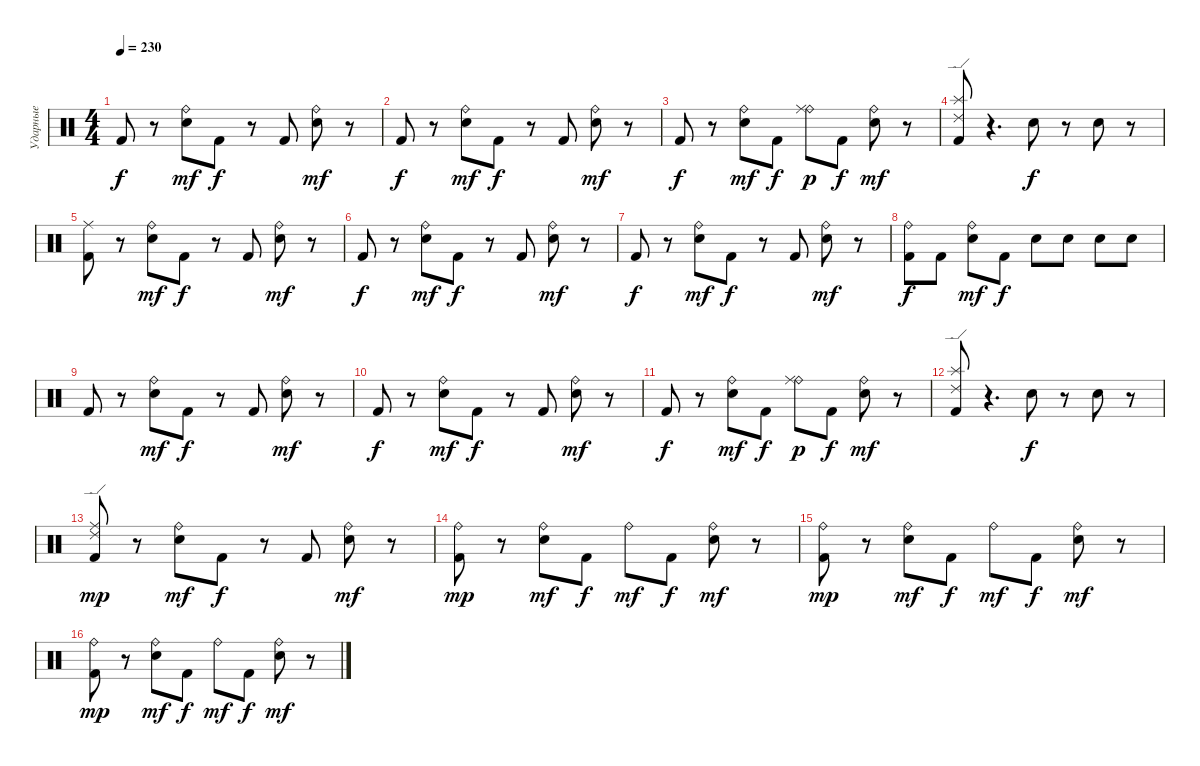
\track ("Ударные" "Ударные") {instrument percussion}
\staff {score}
\articulation defaults
\ts (4 4)
\tempo 230
\clef neutral
\ks c "Kick (hit) 2".8{dy f}
r.8 ("Ride (bell)" "Snare (hit) 2").8{dy mf} "Kick (hit) 2".8{dy f} r.8 "Kick (hit) 2".8 ("Ride (bell)" "Snare (hit) 2").8{dy mf} r.8 |
"Kick (hit) 2".8{dy f} r.8 ("Ride (bell)" "Snare (hit) 2").8{dy mf} "Kick (hit) 2".8{dy f} r.8 "Kick (hit) 2".8 ("Ride (bell)" "Snare (hit) 2").8{dy mf} r.8 |
"Kick (hit) 2".8{dy f} r.8 ("Ride (bell)" "Snare (hit) 2").8{dy mf} "Kick (hit) 2".8{dy f} ("Ride (bell)" "Ride (middle)").8{dy p} "Kick (hit) 2".8{dy f} ("Ride (bell)" "Snare (hit) 2").8{dy mf} r.8 |
("Splash (hit)" "Ride (edge) 2" "Kick (hit) 2").8 r.4{d} "Snare (hit) 2".8{dy f} r.8 "Snare (hit) 2".8 r.8 |
("Ride (middle)" "Kick (hit) 2").8 r.8 ("Ride (bell)" "Snare (hit) 2").8{dy mf} "Kick (hit) 2".8{dy f} r.8 "Kick (hit) 2".8 ("Ride (bell)" "Snare (hit) 2").8{dy mf} r.8 |
"Kick (hit) 2".8{dy f} r.8 ("Ride (bell)" "Snare (hit) 2").8{dy mf} "Kick (hit) 2".8{dy f} r.8 "Kick (hit) 2".8 ("Ride (bell)" "Snare (hit) 2").8{dy mf} r.8 |
"Kick (hit) 2".8{dy f} r.8 ("Ride (bell)" "Snare (hit) 2").8{dy mf} "Kick (hit) 2".8{dy f} r.8 "Kick (hit) 2".8 ("Ride (bell)" "Snare (hit) 2").8{dy mf} r.8 |
("Ride (bell)" "Kick (hit) 2").8{dy f} "Kick (hit) 2".8 ("Ride (bell)" "Snare (hit) 2").8{dy mf} "Kick (hit) 2".8{dy f} "Snare (hit) 2".8 "Snare (hit) 2".8 "Snare (hit) 2".8 "Snare (hit) 2".8 |
"Kick (hit) 2".8 r.8 ("Ride (bell)" "Snare (hit) 2").8{dy mf} "Kick (hit) 2".8{dy f} r.8 "Kick (hit) 2".8 ("Ride (bell)" "Snare (hit) 2").8{dy mf} r.8 |
"Kick (hit) 2".8{dy f} r.8 ("Ride (bell)" "Snare (hit) 2").8{dy mf} "Kick (hit) 2".8{dy f} r.8 "Kick (hit) 2".8 ("Ride (bell)" "Snare (hit) 2").8{dy mf} r.8 |
"Kick (hit) 2".8{dy f} r.8 ("Ride (bell)" "Snare (hit) 2").8{dy mf} "Kick (hit) 2".8{dy f} ("Ride (bell)" "Ride (middle)").8{dy p} "Kick (hit) 2".8{dy f} ("Ride (bell)" "Snare (hit) 2").8{dy mf} r.8 |
("Splash (hit)" "Ride (edge) 2" "Kick (hit) 2").8 r.4{d} "Snare (hit) 2".8{dy f} r.8 "Snare (hit) 2".8 r.8 |
("Ride (edge) 2" "Ride (middle)" "Kick (hit) 2").8{dy mp} r.8 ("Ride (bell)" "Snare (hit) 2").8{dy mf} "Kick (hit) 2".8{dy f} r.8 "Kick (hit) 2".8 ("Ride (bell)" "Snare (hit) 2").8{dy mf} r.8 |
("Ride (bell)" "Kick (hit) 2").8{dy mp} r.8 ("Ride (bell)" "Snare (hit) 2").8{dy mf} "Kick (hit) 2".8{dy f} "Ride (bell)".8{dy mf} "Kick (hit) 2".8{dy f} ("Ride (bell)" "Snare (hit) 2").8{dy mf} r.8 |
("Ride (bell)" "Kick (hit) 2").8{dy mp} r.8 ("Ride (bell)" "Snare (hit) 2").8{dy mf} "Kick (hit) 2".8{dy f} "Ride (bell)".8{dy mf} "Kick (hit) 2".8{dy f} ("Ride (bell)" "Snare (hit) 2").8{dy mf} r.8 |
("Ride (bell)" "Kick (hit) 2").8{dy mp} r.8 ("Ride (bell)" "Snare (hit) 2").8{dy mf} "Kick (hit) 2".8{dy f} "Ride (bell)".8{dy mf} "Kick (hit) 2".8{dy f} ("Ride (bell)" "Snare (hit) 2").8{dy mf} r.8
